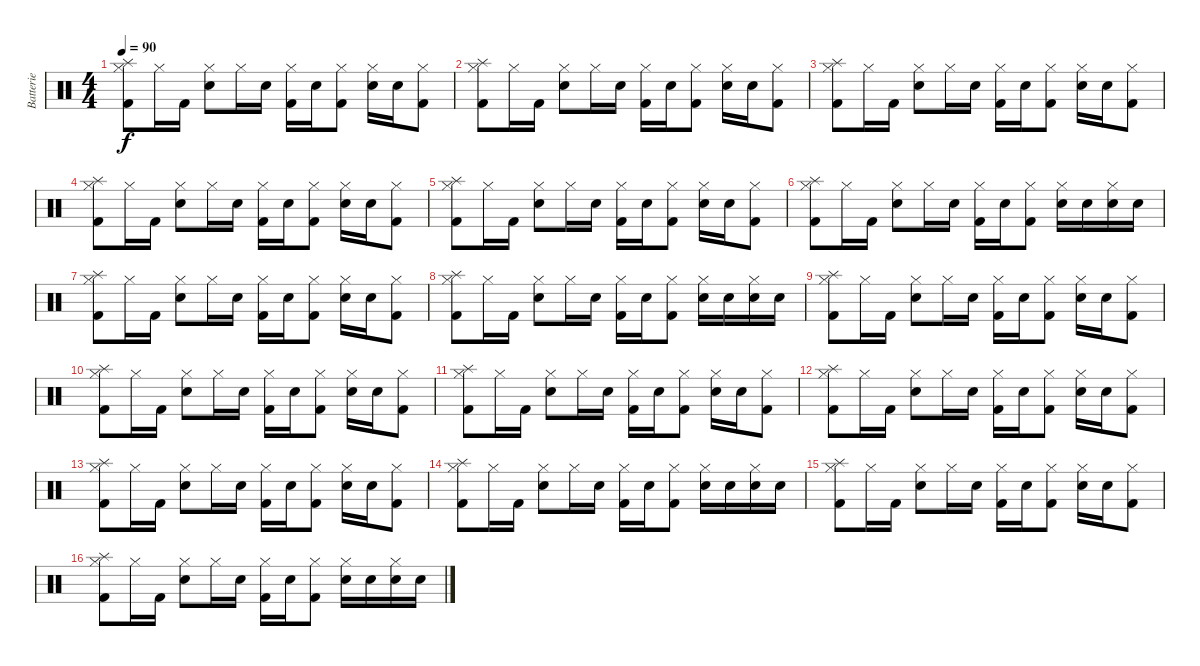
\track ("Batterie" "Batterie") {instrument percussion}
\staff {score}
\articulation defaults
\ts (4 4)
\tempo 90
\clef neutral
\ks c
("Splash (hit)" "Hi-Hat (closed)" "Kick (hit) 2").8{dy f} "Hi-Hat (closed)".16 "Kick (hit) 2".16 ("Hi-Hat (closed)" "Snare (hit) 2").8 "Hi-Hat (closed)".16 "Snare (hit) 2".16 ("Hi-Hat (closed)" "Kick (hit) 2").16 "Snare (hit) 2".16 ("Hi-Hat (closed)" "Kick (hit) 2").8 ("Hi-Hat (closed)" "Snare (hit) 2").16 "Snare (hit) 2".16 ("Hi-Hat (closed)" "Kick (hit) 2").8 |
("Splash (hit)" "Hi-Hat (closed)" "Kick (hit) 2").8 "Hi-Hat (closed)".16 "Kick (hit) 2".16 ("Hi-Hat (closed)" "Snare (hit) 2").8 "Hi-Hat (closed)".16 "Snare (hit) 2".16 ("Hi-Hat (closed)" "Kick (hit) 2").16 "Snare (hit) 2".16 ("Hi-Hat (closed)" "Kick (hit) 2").8 ("Hi-Hat (closed)" "Snare (hit) 2").16 "Snare (hit) 2".16 ("Hi-Hat (closed)" "Kick (hit) 2").8 |
("Splash (hit)" "Hi-Hat (closed)" "Kick (hit) 2").8 "Hi-Hat (closed)".16 "Kick (hit) 2".16 ("Hi-Hat (closed)" "Snare (hit) 2").8 "Hi-Hat (closed)".16 "Snare (hit) 2".16 ("Hi-Hat (closed)" "Kick (hit) 2").16 "Snare (hit) 2".16 ("Hi-Hat (closed)" "Kick (hit) 2").8 ("Hi-Hat (closed)" "Snare (hit) 2").16 "Snare (hit) 2".16 ("Hi-Hat (closed)" "Kick (hit) 2").8 |
("Splash (hit)" "Hi-Hat (closed)" "Kick (hit) 2").8 "Hi-Hat (closed)".16 "Kick (hit) 2".16 ("Hi-Hat (closed)" "Snare (hit) 2").8 "Hi-Hat (closed)".16 "Snare (hit) 2".16 ("Hi-Hat (closed)" "Kick (hit) 2").16 "Snare (hit) 2".16 ("Hi-Hat (closed)" "Kick (hit) 2").8 ("Hi-Hat (closed)" "Snare (hit) 2").16 "Snare (hit) 2".16 ("Hi-Hat (closed)" "Kick (hit) 2").8 |
("Splash (hit)" "Hi-Hat (closed)" "Kick (hit) 2").8 "Hi-Hat (closed)".16 "Kick (hit) 2".16 ("Hi-Hat (closed)" "Snare (hit) 2").8 "Hi-Hat (closed)".16 "Snare (hit) 2".16 ("Hi-Hat (closed)" "Kick (hit) 2").16 "Snare (hit) 2".16 ("Hi-Hat (closed)" "Kick (hit) 2").8 ("Hi-Hat (closed)" "Snare (hit) 2").16 "Snare (hit) 2".16 ("Hi-Hat (closed)" "Kick (hit) 2").8 |
("Splash (hit)" "Hi-Hat (closed)" "Kick (hit) 2").8 "Hi-Hat (closed)".16 "Kick (hit) 2".16 ("Hi-Hat (closed)" "Snare (hit) 2").8 "Hi-Hat (closed)".16 "Snare (hit) 2".16 ("Hi-Hat (closed)" "Kick (hit) 2").16 "Snare (hit) 2".16 ("Hi-Hat (closed)" "Kick (hit) 2").8 ("Hi-Hat (closed)" "Snare (hit) 2").16 "Snare (hit) 2".16 ("Hi-Hat (closed)" "Snare (hit) 2").16 "Snare (hit) 2".16 |
("Splash (hit)" "Hi-Hat (closed)" "Kick (hit) 2").8 "Hi-Hat (closed)".16 "Kick (hit) 2".16 ("Hi-Hat (closed)" "Snare (hit) 2").8 "Hi-Hat (closed)".16 "Snare (hit) 2".16 ("Hi-Hat (closed)" "Kick (hit) 2").16 "Snare (hit) 2".16 ("Hi-Hat (closed)" "Kick (hit) 2").8 ("Hi-Hat (closed)" "Snare (hit) 2").16 "Snare (hit) 2".16 ("Hi-Hat (closed)" "Kick (hit) 2").8 |
("Splash (hit)" "Hi-Hat (closed)" "Kick (hit) 2").8 "Hi-Hat (closed)".16 "Kick (hit) 2".16 ("Hi-Hat (closed)" "Snare (hit) 2").8 "Hi-Hat (closed)".16 "Snare (hit) 2".16 ("Hi-Hat (closed)" "Kick (hit) 2").16 "Snare (hit) 2".16 ("Hi-Hat (closed)" "Kick (hit) 2").8 ("Hi-Hat (closed)" "Snare (hit) 2").16 "Snare (hit) 2".16 ("Hi-Hat (closed)" "Snare (hit) 2").16 "Snare (hit) 2".16 |
("Splash (hit)" "Hi-Hat (closed)" "Kick (hit) 2").8 "Hi-Hat (closed)".16 "Kick (hit) 2".16 ("Hi-Hat (closed)" "Snare (hit) 2").8 "Hi-Hat (closed)".16 "Snare (hit) 2".16 ("Hi-Hat (closed)" "Kick (hit) 2").16 "Snare (hit) 2".16 ("Hi-Hat (closed)" "Kick (hit) 2").8 ("Hi-Hat (closed)" "Snare (hit) 2").16 "Snare (hit) 2".16 ("Hi-Hat (closed)" "Kick (hit) 2").8 |
("Splash (hit)" "Hi-Hat (closed)" "Kick (hit) 2").8 "Hi-Hat (closed)".16 "Kick (hit) 2".16 ("Hi-Hat (closed)" "Snare (hit) 2").8 "Hi-Hat (closed)".16 "Snare (hit) 2".16 ("Hi-Hat (closed)" "Kick (hit) 2").16 "Snare (hit) 2".16 ("Hi-Hat (closed)" "Kick (hit) 2").8 ("Hi-Hat (closed)" "Snare (hit) 2").16 "Snare (hit) 2".16 ("Hi-Hat (closed)" "Kick (hit) 2").8 |
("Splash (hit)" "Hi-Hat (closed)" "Kick (hit) 2").8 "Hi-Hat (closed)".16 "Kick (hit) 2".16 ("Hi-Hat (closed)" "Snare (hit) 2").8 "Hi-Hat (closed)".16 "Snare (hit) 2".16 ("Hi-Hat (closed)" "Kick (hit) 2").16 "Snare (hit) 2".16 ("Hi-Hat (closed)" "Kick (hit) 2").8 ("Hi-Hat (closed)" "Snare (hit) 2").16 "Snare (hit) 2".16 ("Hi-Hat (closed)" "Kick (hit) 2").8 |
("Splash (hit)" "Hi-Hat (closed)" "Kick (hit) 2").8 "Hi-Hat (closed)".16 "Kick (hit) 2".16 ("Hi-Hat (closed)" "Snare (hit) 2").8 "Hi-Hat (closed)".16 "Snare (hit) 2".16 ("Hi-Hat (closed)" "Kick (hit) 2").16 "Snare (hit) 2".16 ("Hi-Hat (closed)" "Kick (hit) 2").8 ("Hi-Hat (closed)" "Snare (hit) 2").16 "Snare (hit) 2".16 ("Hi-Hat (closed)" "Kick (hit) 2").8 |
("Splash (hit)" "Hi-Hat (closed)" "Kick (hit) 2").8 "Hi-Hat (closed)".16 "Kick (hit) 2".16 ("Hi-Hat (closed)" "Snare (hit) 2").8 "Hi-Hat (closed)".16 "Snare (hit) 2".16 ("Hi-Hat (closed)" "Kick (hit) 2").16 "Snare (hit) 2".16 ("Hi-Hat (closed)" "Kick (hit) 2").8 ("Hi-Hat (closed)" "Snare (hit) 2").16 "Snare (hit) 2".16 ("Hi-Hat (closed)" "Kick (hit) 2").8 |
("Splash (hit)" "Hi-Hat (closed)" "Kick (hit) 2").8 "Hi-Hat (closed)".16 "Kick (hit) 2".16 ("Hi-Hat (closed)" "Snare (hit) 2").8 "Hi-Hat (closed)".16 "Snare (hit) 2".16 ("Hi-Hat (closed)" "Kick (hit) 2").16 "Snare (hit) 2".16 ("Hi-Hat (closed)" "Kick (hit) 2").8 ("Hi-Hat (closed)" "Snare (hit) 2").16 "Snare (hit) 2".16 ("Hi-Hat (closed)" "Snare (hit) 2").16 "Snare (hit) 2".16 |
("Splash (hit)" "Hi-Hat (closed)" "Kick (hit) 2").8 "Hi-Hat (closed)".16 "Kick (hit) 2".16 ("Hi-Hat (closed)" "Snare (hit) 2").8 "Hi-Hat (closed)".16 "Snare (hit) 2".16 ("Hi-Hat (closed)" "Kick (hit) 2").16 "Snare (hit) 2".16 ("Hi-Hat (closed)" "Kick (hit) 2").8 ("Hi-Hat (closed)" "Snare (hit) 2").16 "Snare (hit) 2".16 ("Hi-Hat (closed)" "Kick (hit) 2").8 |
("Splash (hit)" "Hi-Hat (closed)" "Kick (hit) 2").8 "Hi-Hat (closed)".16 "Kick (hit) 2".16 ("Hi-Hat (closed)" "Snare (hit) 2").8 "Hi-Hat (closed)".16 "Snare (hit) 2".16 ("Hi-Hat (closed)" "Kick (hit) 2").16 "Snare (hit) 2".16 ("Hi-Hat (closed)" "Kick (hit) 2").8 ("Hi-Hat (closed)" "Snare (hit) 2").16 "Snare (hit) 2".16 ("Hi-Hat (closed)" "Snare (hit) 2").16 "Snare (hit) 2".16
